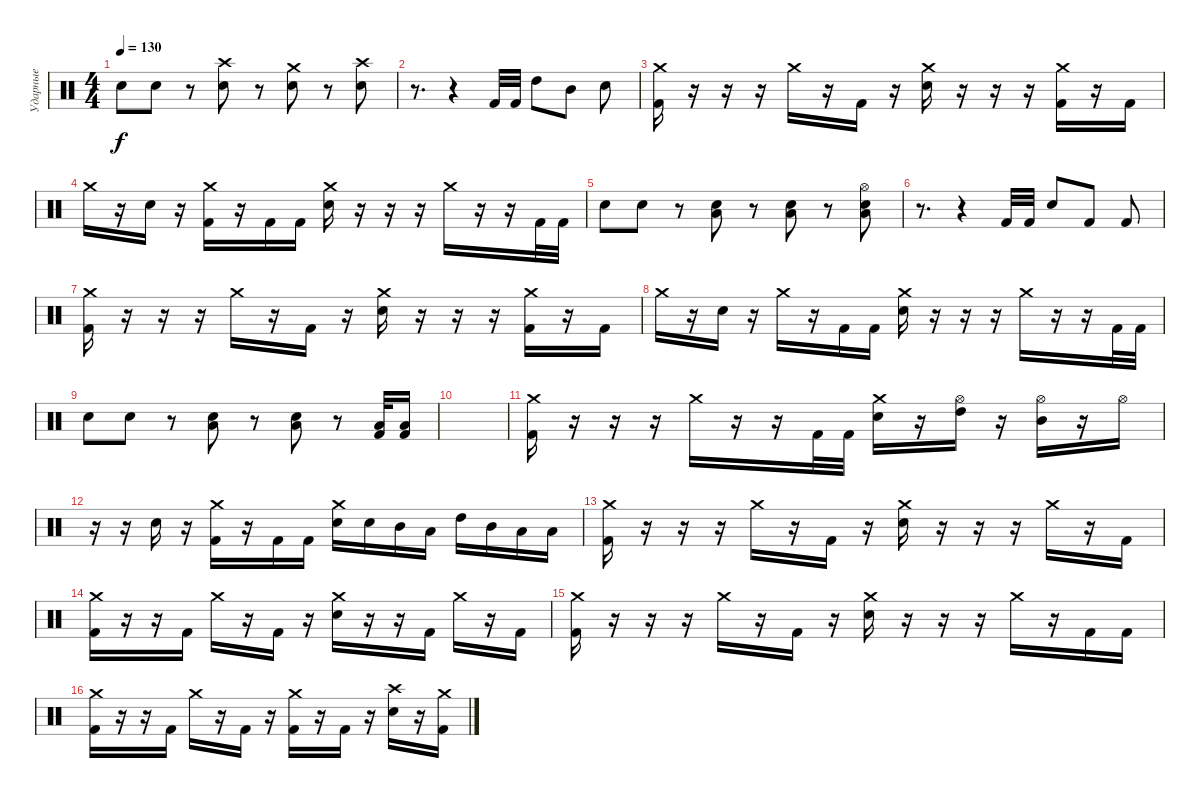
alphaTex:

\track ("Ударные" "Ударные") {instrument percussion}
\staff {score}
\articulation defaults
\ts (4 4)
\tempo 130
\clef neutral
\ks c "Electric Snare (hit)".8{dy f} "Electric Snare (hit)".8
r.8 ("Crash high (hit)" "Electric Snare (hit)").8 r.8 ("Crash medium (hit)" "Electric Snare (hit)").8 r.8 ("Crash high (hit)" "Electric Snare (hit)").8 |
r.8{d} r.4 "Kick (hit) 2".32 "Kick (hit) 2".32 "High Tom (hit)".8 "Mid Tom (hit)".8 "Electric Snare (hit)".8 |
("Crash medium (hit)" "Kick (hit) 2").16 r.16 r.16 r.16 "Crash medium (hit)".16 r.16 "Kick (hit) 2".16 r.16 ("Crash medium (hit)" "Electric Snare (hit)").16 r.16 r.16 r.16 ("Crash medium (hit)" "Kick (hit) 2").16 r.16 "Kick (hit) 2".16 |
"Crash medium (hit)".16 r.16 "Electric Snare (hit)".16 r.16 ("Crash medium (hit)" "Kick (hit) 2").16 r.16 "Kick (hit) 2".16 "Kick (hit) 2".16 ("Crash medium (hit)" "Electric Snare (hit)").16 r.16 r.16 r.16 "Crash medium (hit)".16 r.16 r.16 "Kick (hit) 2".32 "Kick (hit) 2".32 |
"Electric Snare (hit)".8 "Electric Snare (hit)".8 r.8 ("Low Tom (hit)" "Electric Snare (hit)").8 r.8 ("Low Tom (hit)" "Electric Snare (hit)").8 r.8 ("Hi-Hat (open)" "Low Tom (hit)" "Electric Snare (hit)").8 |
r.8{d} r.4 "Kick (hit) 2".32 "Kick (hit) 2".32 "Electric Snare (hit)".8 "Kick (hit) 2".8 "Kick (hit) 2".8 |
("Crash medium (hit)" "Kick (hit) 2").16 r.16 r.16 r.16 "Crash medium (hit)".16 r.16 "Kick (hit) 2".16 r.16 ("Crash medium (hit)" "Electric Snare (hit)").16 r.16 r.16 r.16 ("Crash medium (hit)" "Kick (hit) 2").16 r.16 "Kick (hit) 2".16 |
"Crash medium (hit)".16 r.16 "Electric Snare (hit)".16 r.16 "Crash medium (hit)".16 r.16 "Kick (hit) 2".16 "Kick (hit) 2".16 ("Crash medium (hit)" "Electric Snare (hit)").16 r.16 r.16 r.16 "Crash medium (hit)".16 r.16 r.16 "Kick (hit) 2".32 "Kick (hit) 2".32 |
"Electric Snare (hit)".8 "Electric Snare (hit)".8 r.8 ("Low Tom (hit)" "Electric Snare (hit)").8 r.8 ("Low Tom (hit)" "Electric Snare (hit)").8 r.8 ("Low Tom (hit)" "Kick (hit) 2").32 ("Low Tom (hit)" "Kick (hit) 2").16 |
|
("Crash medium (hit)" "Kick (hit) 2").16 r.16 r.16 r.16 "Crash medium (hit)".16 r.16 r.16 "Kick (hit) 2".32 "Kick (hit) 2".32 ("Crash medium (hit)" "Electric Snare (hit)").16 r.16 ("Hi-Hat (open)" "High Tom (hit)").16 r.16 ("Hi-Hat (open)" "Mid Tom (hit)").16 r.16 "Hi-Hat (open)".16 |
r.16 r.16 "Electric Snare (hit)".16 r.16 ("Crash medium (hit)" "Kick (hit) 2").16 r.16 "Kick (hit) 2".16 "Kick (hit) 2".16 ("Crash medium (hit)" "Electric Snare (hit)").16 "Electric Snare (hit)".16 "Mid Tom (hit)".16 "Low Tom (hit)".16 "High Tom (hit)".16 "Mid Tom (hit)".16 "Low Tom (hit)".16 "Low Tom (hit)".16 |
("Crash medium (hit)" "Kick (hit) 2").16 r.16 r.16 r.16 "Crash medium (hit)".16 r.16 "Kick (hit) 2".16 r.16 ("Crash medium (hit)" "Electric Snare (hit)").16 r.16 r.16 r.16 "Crash medium (hit)".16 r.16 "Kick (hit) 2".16 |
("Crash medium (hit)" "Kick (hit) 2").16 r.16 r.16 "Kick (hit) 2".16 "Crash medium (hit)".16 r.16 "Kick (hit) 2".16 r.16 ("Crash medium (hit)" "Electric Snare (hit)").16 r.16 r.16 "Kick (hit) 2".16 "Crash medium (hit)".16 r.16 "Kick (hit) 2".16 |
("Crash medium (hit)" "Kick (hit) 2").16 r.16 r.16 r.16 "Crash medium (hit)".16 r.16 "Kick (hit) 2".16 r.16 ("Crash medium (hit)" "Electric Snare (hit)").16 r.16 r.16 r.16 "Crash medium (hit)".16 r.16 "Kick (hit) 2".16 "Kick (hit) 2".16 |
("Crash medium (hit)" "Kick (hit) 2").16 r.16 r.16 "Kick (hit) 2".16 "Crash medium (hit)".16 r.16 "Kick (hit) 2".16 r.16 ("Crash medium (hit)" "Kick (hit) 2").16 r.16 "Kick (hit) 2".16 r.16 ("Crash high (hit)" "Electric Snare (hit)").16 r.16 ("Crash medium (hit)" "Kick (hit) 2").16
